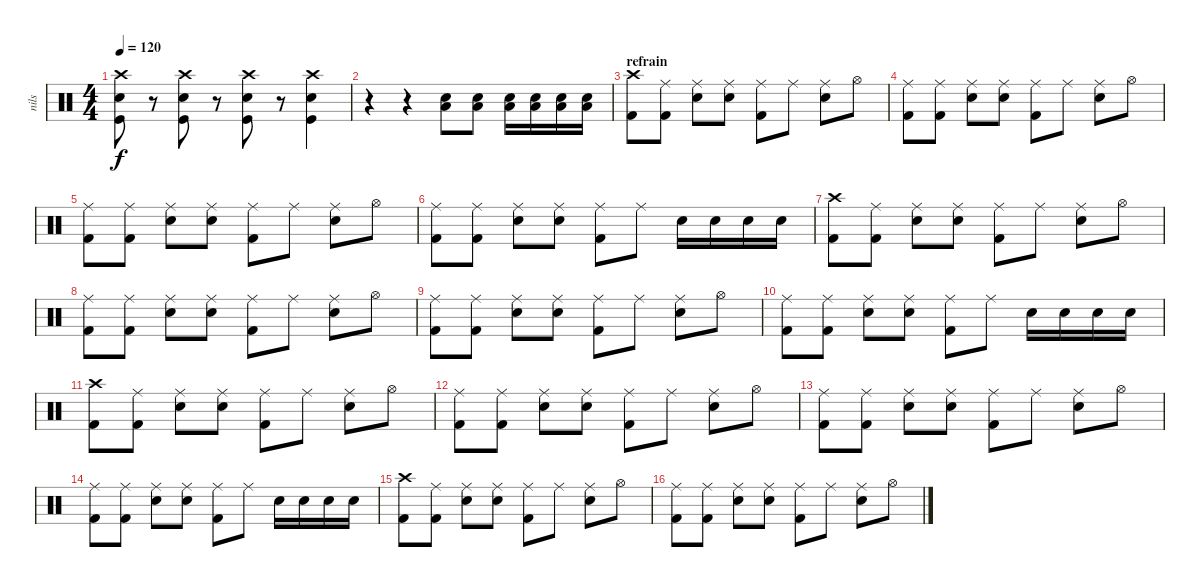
\track ("nils" "nils") {instrument percussion}
\staff {score}
\articulation defaults
\ts (4 4)
\tempo 120
\clef neutral
\ks c
("Crash high (hit)" "Snare (hit) 2" "Kick (hit)").8{dy f} r.8 ("Crash high (hit)" "Snare (hit) 2" "Kick (hit)").8 r.8 ("Crash high (hit)" "Snare (hit) 2" "Kick (hit)").8 r.8 ("Crash high (hit)" "Snare (hit) 2" "Kick (hit)").4 |
r.4 r.4 ("Low Tom (hit)" "Snare (hit) 2").8 ("Low Tom (hit)" "Snare (hit) 2").8 ("Low Tom (hit)" "Snare (hit) 2").16 ("Low Tom (hit)" "Snare (hit) 2").16 ("Low Tom (hit)" "Snare (hit) 2").16 ("Low Tom (hit)" "Snare (hit) 2").16 |
\section ("" "refrain")
("Crash high (hit)" "Kick (hit) 2").8 ("Ride (middle)" "Kick (hit) 2").8 ("Ride (middle)" "Snare (hit) 2").8 ("Ride (middle)" "Snare (hit) 2").8 ("Ride (middle)" "Kick (hit) 2").8 "Ride (middle)".8 ("Ride (middle)" "Snare (hit) 2").8 "Hi-Hat (open)".8 |
("Ride (middle)" "Kick (hit) 2").8 ("Ride (middle)" "Kick (hit) 2").8 ("Ride (middle)" "Snare (hit) 2").8 ("Ride (middle)" "Snare (hit) 2").8 ("Ride (middle)" "Kick (hit) 2").8 "Ride (middle)".8 ("Ride (middle)" "Snare (hit) 2").8 "Hi-Hat (open)".8 |
("Ride (middle)" "Kick (hit) 2").8 ("Ride (middle)" "Kick (hit) 2").8 ("Ride (middle)" "Snare (hit) 2").8 ("Ride (middle)" "Snare (hit) 2").8 ("Ride (middle)" "Kick (hit) 2").8 "Ride (middle)".8 ("Ride (middle)" "Snare (hit) 2").8 "Hi-Hat (open)".8 |
("Ride (middle)" "Kick (hit) 2").8 ("Ride (middle)" "Kick (hit) 2").8 ("Ride (middle)" "Snare (hit) 2").8 ("Ride (middle)" "Snare (hit) 2").8 ("Ride (middle)" "Kick (hit) 2").8 "Ride (middle)".8 "Snare (hit) 2".16 "Snare (hit) 2".16 "Snare (hit) 2".16 "Snare (hit) 2".16 |
("Crash high (hit)" "Kick (hit) 2").8 ("Ride (middle)" "Kick (hit) 2").8 ("Ride (middle)" "Snare (hit) 2").8 ("Ride (middle)" "Snare (hit) 2").8 ("Ride (middle)" "Kick (hit) 2").8 "Ride (middle)".8 ("Ride (middle)" "Snare (hit) 2").8 "Hi-Hat (open)".8 |
("Ride (middle)" "Kick (hit) 2").8 ("Ride (middle)" "Kick (hit) 2").8 ("Ride (middle)" "Snare (hit) 2").8 ("Ride (middle)" "Snare (hit) 2").8 ("Ride (middle)" "Kick (hit) 2").8 "Ride (middle)".8 ("Ride (middle)" "Snare (hit) 2").8 "Hi-Hat (open)".8 |
("Ride (middle)" "Kick (hit) 2").8 ("Ride (middle)" "Kick (hit) 2").8 ("Ride (middle)" "Snare (hit) 2").8 ("Ride (middle)" "Snare (hit) 2").8 ("Ride (middle)" "Kick (hit) 2").8 "Ride (middle)".8 ("Ride (middle)" "Snare (hit) 2").8 "Hi-Hat (open)".8 |
("Ride (middle)" "Kick (hit) 2").8 ("Ride (middle)" "Kick (hit) 2").8 ("Ride (middle)" "Snare (hit) 2").8 ("Ride (middle)" "Snare (hit) 2").8 ("Ride (middle)" "Kick (hit) 2").8 "Ride (middle)".8 "Snare (hit) 2".16 "Snare (hit) 2".16 "Snare (hit) 2".16 "Snare (hit) 2".16 |
("Crash high (hit)" "Kick (hit) 2").8 ("Ride (middle)" "Kick (hit) 2").8 ("Ride (middle)" "Snare (hit) 2").8 ("Ride (middle)" "Snare (hit) 2").8 ("Ride (middle)" "Kick (hit) 2").8 "Ride (middle)".8 ("Ride (middle)" "Snare (hit) 2").8 "Hi-Hat (open)".8 |
("Ride (middle)" "Kick (hit) 2").8 ("Ride (middle)" "Kick (hit) 2").8 ("Ride (middle)" "Snare (hit) 2").8 ("Ride (middle)" "Snare (hit) 2").8 ("Ride (middle)" "Kick (hit) 2").8 "Ride (middle)".8 ("Ride (middle)" "Snare (hit) 2").8 "Hi-Hat (open)".8 |
("Ride (middle)" "Kick (hit) 2").8 ("Ride (middle)" "Kick (hit) 2").8 ("Ride (middle)" "Snare (hit) 2").8 ("Ride (middle)" "Snare (hit) 2").8 ("Ride (middle)" "Kick (hit) 2").8 "Ride (middle)".8 ("Ride (middle)" "Snare (hit) 2").8 "Hi-Hat (open)".8 |
("Ride (middle)" "Kick (hit) 2").8 ("Ride (middle)" "Kick (hit) 2").8 ("Ride (middle)" "Snare (hit) 2").8 ("Ride (middle)" "Snare (hit) 2").8 ("Ride (middle)" "Kick (hit) 2").8 "Ride (middle)".8 "Snare (hit) 2".16 "Snare (hit) 2".16 "Snare (hit) 2".16 "Snare (hit) 2".16 |
("Crash high (hit)" "Kick (hit) 2").8 ("Ride (middle)" "Kick (hit) 2").8 ("Ride (middle)" "Snare (hit) 2").8 ("Ride (middle)" "Snare (hit) 2").8 ("Ride (middle)" "Kick (hit) 2").8 "Ride (middle)".8 ("Ride (middle)" "Snare (hit) 2").8 "Hi-Hat (open)".8 |
("Ride (middle)" "Kick (hit) 2").8 ("Ride (middle)" "Kick (hit) 2").8 ("Ride (middle)" "Snare (hit) 2").8 ("Ride (middle)" "Snare (hit) 2").8 ("Ride (middle)" "Kick (hit) 2").8 "Ride (middle)".8 ("Ride (middle)" "Snare (hit) 2").8 "Hi-Hat (open)".8
